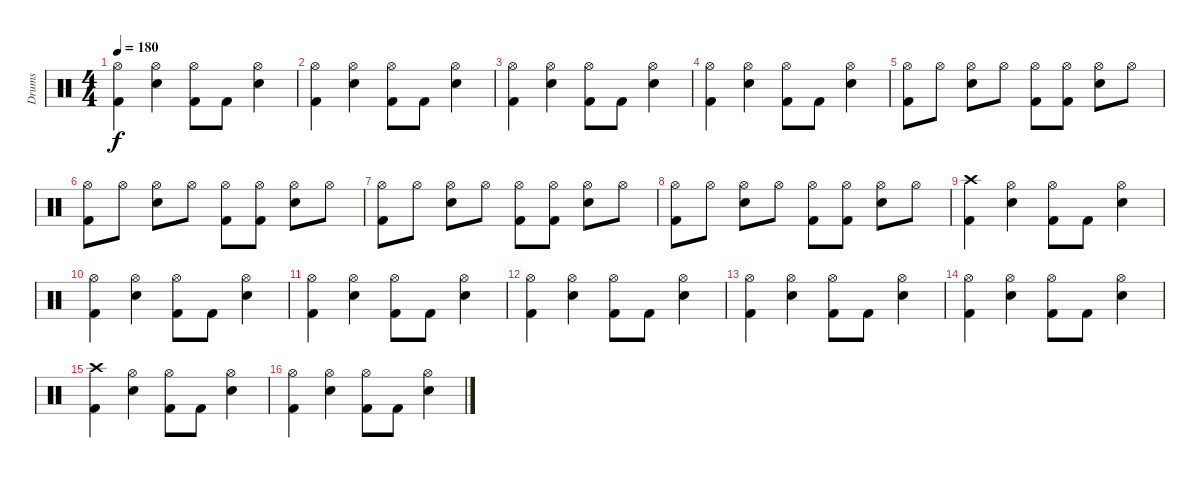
\track ("Drums" "Drums") {instrument percussion}
\staff {score}
\articulation defaults
\ts (4 4)
\tempo 180
\clef neutral
\ks c
("Hi-Hat (open)" "Kick (hit) 2").4{dy f} ("Hi-Hat (open)" "Snare (hit) 2").4 ("Hi-Hat (open)" "Kick (hit) 2").8 "Kick (hit) 2".8 ("Hi-Hat (open)" "Snare (hit) 2").4 |
("Hi-Hat (open)" "Kick (hit) 2").4 ("Hi-Hat (open)" "Snare (hit) 2").4 ("Hi-Hat (open)" "Kick (hit) 2").8 "Kick (hit) 2".8 ("Hi-Hat (open)" "Snare (hit) 2").4 |
("Hi-Hat (open)" "Kick (hit) 2").4 ("Hi-Hat (open)" "Snare (hit) 2").4 ("Hi-Hat (open)" "Kick (hit) 2").8 "Kick (hit) 2".8 ("Hi-Hat (open)" "Snare (hit) 2").4 |
("Hi-Hat (open)" "Kick (hit) 2").4 ("Hi-Hat (open)" "Snare (hit) 2").4 ("Hi-Hat (open)" "Kick (hit) 2").8 "Kick (hit) 2".8 ("Hi-Hat (open)" "Snare (hit) 2").4 |
("Hi-Hat (open)" "Kick (hit) 2").8 "Hi-Hat (open)".8 ("Hi-Hat (open)" "Snare (hit) 2").8 "Hi-Hat (open)".8 ("Hi-Hat (open)" "Kick (hit) 2").8 ("Hi-Hat (open)" "Kick (hit) 2").8 ("Hi-Hat (open)" "Snare (hit) 2").8 "Hi-Hat (open)".8 |
("Hi-Hat (open)" "Kick (hit) 2").8 "Hi-Hat (open)".8 ("Hi-Hat (open)" "Snare (hit) 2").8 "Hi-Hat (open)".8 ("Hi-Hat (open)" "Kick (hit) 2").8 ("Hi-Hat (open)" "Kick (hit) 2").8 ("Hi-Hat (open)" "Snare (hit) 2").8 "Hi-Hat (open)".8 |
("Hi-Hat (open)" "Kick (hit) 2").8 "Hi-Hat (open)".8 ("Hi-Hat (open)" "Snare (hit) 2").8 "Hi-Hat (open)".8 ("Hi-Hat (open)" "Kick (hit) 2").8 ("Hi-Hat (open)" "Kick (hit) 2").8 ("Hi-Hat (open)" "Snare (hit) 2").8 "Hi-Hat (open)".8 |
("Hi-Hat (open)" "Kick (hit) 2").8 "Hi-Hat (open)".8 ("Hi-Hat (open)" "Snare (hit) 2").8 "Hi-Hat (open)".8 ("Hi-Hat (open)" "Kick (hit) 2").8 ("Hi-Hat (open)" "Kick (hit) 2").8 ("Hi-Hat (open)" "Snare (hit) 2").8 "Hi-Hat (open)".8 |
("Crash high (hit)" "Kick (hit) 2").4 ("Hi-Hat (open)" "Snare (hit) 2").4 ("Hi-Hat (open)" "Kick (hit) 2").8 "Kick (hit) 2".8 ("Hi-Hat (open)" "Snare (hit) 2").4 |
("Hi-Hat (open)" "Kick (hit) 2").4 ("Hi-Hat (open)" "Snare (hit) 2").4 ("Hi-Hat (open)" "Kick (hit) 2").8 "Kick (hit) 2".8 ("Hi-Hat (open)" "Snare (hit) 2").4 |
("Hi-Hat (open)" "Kick (hit) 2").4 ("Hi-Hat (open)" "Snare (hit) 2").4 ("Hi-Hat (open)" "Kick (hit) 2").8 "Kick (hit) 2".8 ("Hi-Hat (open)" "Snare (hit) 2").4 |
("Hi-Hat (open)" "Kick (hit) 2").4 ("Hi-Hat (open)" "Snare (hit) 2").4 ("Hi-Hat (open)" "Kick (hit) 2").8 "Kick (hit) 2".8 ("Hi-Hat (open)" "Snare (hit) 2").4 |
("Hi-Hat (open)" "Kick (hit) 2").4 ("Hi-Hat (open)" "Snare (hit) 2").4 ("Hi-Hat (open)" "Kick (hit) 2").8 "Kick (hit) 2".8 ("Hi-Hat (open)" "Snare (hit) 2").4 |
("Hi-Hat (open)" "Kick (hit) 2").4 ("Hi-Hat (open)" "Snare (hit) 2").4 ("Hi-Hat (open)" "Kick (hit) 2").8 "Kick (hit) 2".8 ("Hi-Hat (open)" "Snare (hit) 2").4 |
("Crash high (hit)" "Kick (hit) 2").4 ("Hi-Hat (open)" "Snare (hit) 2").4 ("Hi-Hat (open)" "Kick (hit) 2").8 "Kick (hit) 2".8 ("Hi-Hat (open)" "Snare (hit) 2").4 |
("Hi-Hat (open)" "Kick (hit) 2").4 ("Hi-Hat (open)" "Snare (hit) 2").4 ("Hi-Hat (open)" "Kick (hit) 2").8 "Kick (hit) 2".8 ("Hi-Hat (open)" "Snare (hit) 2").4
